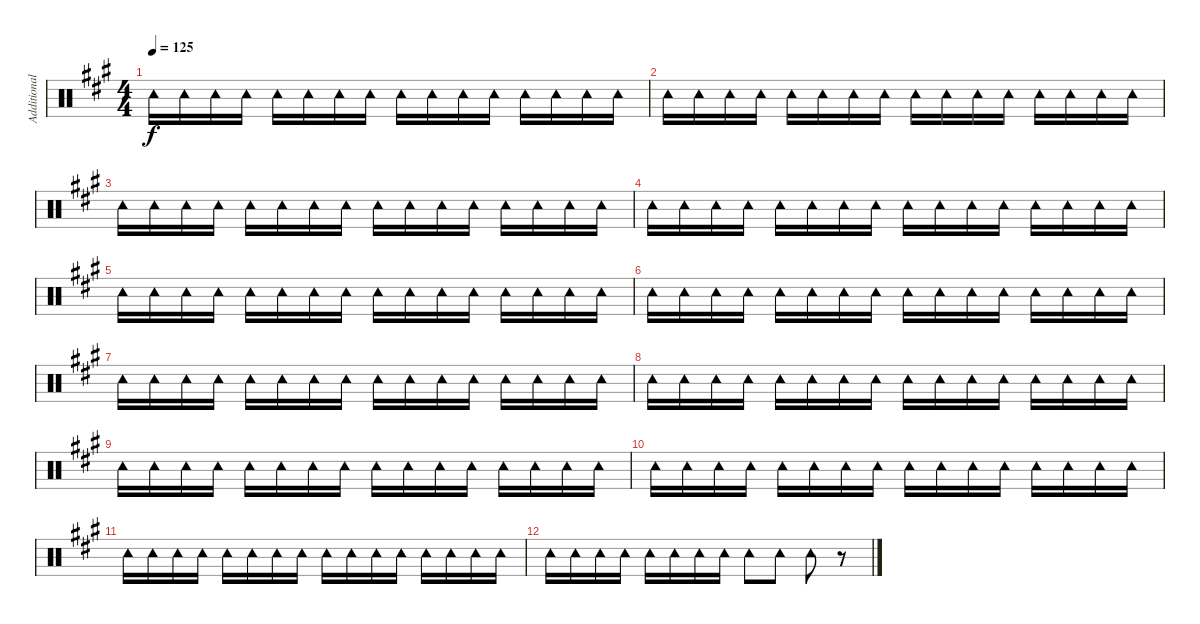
\track ("Additional Percussion II" "Additional") {instrument percussion}
\staff {score}
\articulation defaults
\ts (4 4)
\tempo 125
\clef neutral
\ks a "Tambourine (hit)".16{dy f} "Tambourine (hit)".16 "Tambourine (hit)".16 "Tambourine (hit)".16 "Tambourine (hit)".16 "Tambourine (hit)".16 "Tambourine (hit)".16 "Tambourine (hit)".16 "Tambourine (hit)".16 "Tambourine (hit)".16 "Tambourine (hit)".16 "Tambourine (hit)".16 "Tambourine (hit)".16 "Tambourine (hit)".16 "Tambourine (hit)".16 "Tambourine (hit)".16
|
"Tambourine (hit)".16 "Tambourine (hit)".16 "Tambourine (hit)".16 "Tambourine (hit)".16 "Tambourine (hit)".16 "Tambourine (hit)".16 "Tambourine (hit)".16 "Tambourine (hit)".16 "Tambourine (hit)".16 "Tambourine (hit)".16 "Tambourine (hit)".16 "Tambourine (hit)".16 "Tambourine (hit)".16 "Tambourine (hit)".16 "Tambourine (hit)".16 "Tambourine (hit)".16 |
"Tambourine (hit)".16 "Tambourine (hit)".16 "Tambourine (hit)".16 "Tambourine (hit)".16 "Tambourine (hit)".16 "Tambourine (hit)".16 "Tambourine (hit)".16 "Tambourine (hit)".16 "Tambourine (hit)".16 "Tambourine (hit)".16 "Tambourine (hit)".16 "Tambourine (hit)".16 "Tambourine (hit)".16 "Tambourine (hit)".16 "Tambourine (hit)".16 "Tambourine (hit)".16 |
"Tambourine (hit)".16 "Tambourine (hit)".16 "Tambourine (hit)".16 "Tambourine (hit)".16 "Tambourine (hit)".16 "Tambourine (hit)".16 "Tambourine (hit)".16 "Tambourine (hit)".16 "Tambourine (hit)".16 "Tambourine (hit)".16 "Tambourine (hit)".16 "Tambourine (hit)".16 "Tambourine (hit)".16 "Tambourine (hit)".16 "Tambourine (hit)".16 "Tambourine (hit)".16 |
"Tambourine (hit)".16 "Tambourine (hit)".16 "Tambourine (hit)".16 "Tambourine (hit)".16 "Tambourine (hit)".16 "Tambourine (hit)".16 "Tambourine (hit)".16 "Tambourine (hit)".16 "Tambourine (hit)".16 "Tambourine (hit)".16 "Tambourine (hit)".16 "Tambourine (hit)".16 "Tambourine (hit)".16 "Tambourine (hit)".16 "Tambourine (hit)".16 "Tambourine (hit)".16 |
"Tambourine (hit)".16 "Tambourine (hit)".16 "Tambourine (hit)".16 "Tambourine (hit)".16 "Tambourine (hit)".16 "Tambourine (hit)".16 "Tambourine (hit)".16 "Tambourine (hit)".16 "Tambourine (hit)".16 "Tambourine (hit)".16 "Tambourine (hit)".16 "Tambourine (hit)".16 "Tambourine (hit)".16 "Tambourine (hit)".16 "Tambourine (hit)".16 "Tambourine (hit)".16 |
"Tambourine (hit)".16 "Tambourine (hit)".16 "Tambourine (hit)".16 "Tambourine (hit)".16 "Tambourine (hit)".16 "Tambourine (hit)".16 "Tambourine (hit)".16 "Tambourine (hit)".16 "Tambourine (hit)".16 "Tambourine (hit)".16 "Tambourine (hit)".16 "Tambourine (hit)".16 "Tambourine (hit)".16 "Tambourine (hit)".16 "Tambourine (hit)".16 "Tambourine (hit)".16 |
"Tambourine (hit)".16 "Tambourine (hit)".16 "Tambourine (hit)".16 "Tambourine (hit)".16 "Tambourine (hit)".16 "Tambourine (hit)".16 "Tambourine (hit)".16 "Tambourine (hit)".16 "Tambourine (hit)".16 "Tambourine (hit)".16 "Tambourine (hit)".16 "Tambourine (hit)".16 "Tambourine (hit)".16 "Tambourine (hit)".16 "Tambourine (hit)".16 "Tambourine (hit)".16 |
"Tambourine (hit)".16 "Tambourine (hit)".16 "Tambourine (hit)".16 "Tambourine (hit)".16 "Tambourine (hit)".16 "Tambourine (hit)".16 "Tambourine (hit)".16 "Tambourine (hit)".16 "Tambourine (hit)".16 "Tambourine (hit)".16 "Tambourine (hit)".16 "Tambourine (hit)".16 "Tambourine (hit)".16 "Tambourine (hit)".16 "Tambourine (hit)".16 "Tambourine (hit)".16 |
"Tambourine (hit)".16 "Tambourine (hit)".16 "Tambourine (hit)".16 "Tambourine (hit)".16 "Tambourine (hit)".16 "Tambourine (hit)".16 "Tambourine (hit)".16 "Tambourine (hit)".16 "Tambourine (hit)".16 "Tambourine (hit)".16 "Tambourine (hit)".16 "Tambourine (hit)".16 "Tambourine (hit)".16 "Tambourine (hit)".16 "Tambourine (hit)".16 "Tambourine (hit)".16 |
"Tambourine (hit)".16 "Tambourine (hit)".16 "Tambourine (hit)".16 "Tambourine (hit)".16 "Tambourine (hit)".16 "Tambourine (hit)".16 "Tambourine (hit)".16 "Tambourine (hit)".16 "Tambourine (hit)".16 "Tambourine (hit)".16 "Tambourine (hit)".16 "Tambourine (hit)".16 "Tambourine (hit)".16 "Tambourine (hit)".16 "Tambourine (hit)".16 "Tambourine (hit)".16 |
"Tambourine (hit)".16 "Tambourine (hit)".16 "Tambourine (hit)".16 "Tambourine (hit)".16 "Tambourine (hit)".16 "Tambourine (hit)".16 "Tambourine (hit)".16 "Tambourine (hit)".16 "Tambourine (hit)".8 "Tambourine (hit)".8 "Tambourine (hit)".8 r.8
